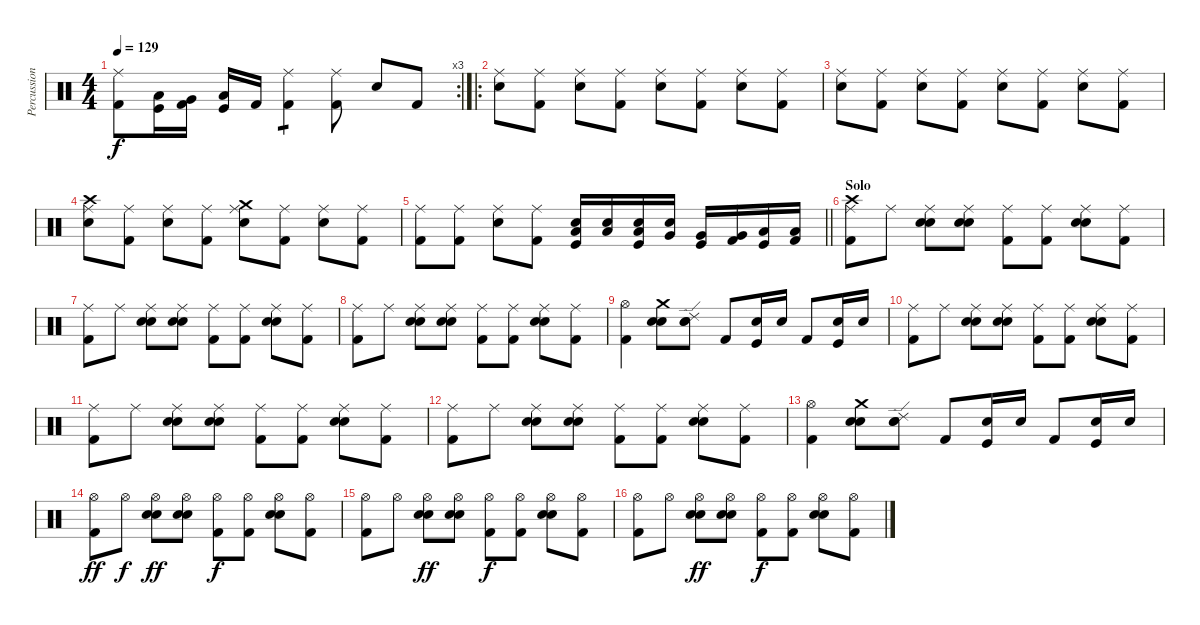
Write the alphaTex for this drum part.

\track ("Percussion" "Percussion") {instrument percussion}
\staff {score}
\articulation defaults
\rc 3
\ts (4 4)
\tempo 129
\clef neutral
\ks c
("Kick (hit) 2" "Ride (middle)").8{dy f} ("Kick (hit)" "Low Tom (hit)").16 ("Kick (hit) 2" "Very Low Tom (hit)").16 ("Kick (hit)" "Low Floor Tom (hit)").16 "Kick (hit) 2".16 ("Kick (hit) 2" "Ride (middle)").4{tp 1} ("Kick (hit) 2" "Ride (middle)").8 "Electric Snare (hit)".8 "Kick (hit) 2".8 |
\ro
("Electric Snare (hit)" "Ride (middle)").8 ("Kick (hit) 2" "Ride (middle)").8 ("Electric Snare (hit)" "Ride (middle)").8 ("Kick (hit) 2" "Ride (middle)").8 ("Electric Snare (hit)" "Ride (middle)").8 ("Kick (hit) 2" "Ride (middle)").8 ("Electric Snare (hit)" "Ride (middle)").8 ("Kick (hit) 2" "Ride (middle)").8 |
("Electric Snare (hit)" "Ride (middle)").8 ("Kick (hit) 2" "Ride (middle)").8 ("Electric Snare (hit)" "Ride (middle)").8 ("Kick (hit) 2" "Ride (middle)").8 ("Electric Snare (hit)" "Ride (middle)").8 ("Kick (hit) 2" "Ride (middle)").8 ("Electric Snare (hit)" "Ride (middle)").8 ("Kick (hit) 2" "Ride (middle)").8 |
("Electric Snare (hit)" "Ride (middle)" "Crash high (hit)").8 ("Kick (hit) 2" "Ride (middle)").8 ("Electric Snare (hit)" "Ride (middle)").8 ("Kick (hit) 2" "Ride (middle)").8 ("Electric Snare (hit)" "Ride (middle)" "Crash medium (hit)").8 ("Kick (hit) 2" "Ride (middle)").8 ("Electric Snare (hit)" "Ride (middle)").8 ("Kick (hit) 2" "Ride (middle)").8 |
\barLineRight lightlight
("Ride (middle)" "Kick (hit) 2").8 ("Ride (middle)" "Kick (hit) 2").8 ("Ride (middle)" "Electric Snare (hit)").8 ("Kick (hit) 2" "Ride (middle)").8 ("Kick (hit)" "Electric Snare (hit)" "Low Tom (hit)").16 ("Low Tom (hit)" "Electric Snare (hit)").16 ("Kick (hit)" "Electric Snare (hit)" "Low Tom (hit)").16 ("Electric Snare (hit)" "Very Low Tom (hit)").16 ("Kick (hit)" "Very Low Tom (hit)").16 ("Kick (hit) 2" "Very Low Tom (hit)").16 ("Kick (hit)" "Low Floor Tom (hit)").16 ("Kick (hit) 2" "Low Floor Tom (hit)").16 |
\section ("" "Solo")
("Kick (hit) 2" "Ride (middle)" "Crash high (hit)").8 "Ride (middle)".8 ("Hand Clap (hit)" "Electric Snare (hit)" "Ride (middle)").8 ("Electric Snare (hit)" "Hand Clap (hit)" "Ride (middle)").8 ("Kick (hit) 2" "Ride (middle)").8 ("Kick (hit) 2" "Ride (middle)").8 ("Electric Snare (hit)" "Ride (middle)" "Hand Clap (hit)").8 ("Kick (hit) 2" "Ride (middle)").8 |
("Kick (hit) 2" "Ride (middle)").8 "Ride (middle)".8 ("Hand Clap (hit)" "Electric Snare (hit)" "Ride (middle)").8 ("Electric Snare (hit)" "Hand Clap (hit)" "Ride (middle)").8 ("Kick (hit) 2" "Ride (middle)").8 ("Kick (hit) 2" "Ride (middle)").8 ("Electric Snare (hit)" "Ride (middle)" "Hand Clap (hit)").8 ("Kick (hit) 2" "Ride (middle)").8 |
("Kick (hit) 2" "Ride (middle)").8 "Ride (middle)".8 ("Hand Clap (hit)" "Electric Snare (hit)" "Ride (middle)").8 ("Electric Snare (hit)" "Hand Clap (hit)" "Ride (middle)").8 ("Kick (hit) 2" "Ride (middle)").8 ("Kick (hit) 2" "Ride (middle)").8 ("Electric Snare (hit)" "Ride (middle)" "Hand Clap (hit)").8 ("Kick (hit) 2" "Ride (middle)").8 |
("Kick (hit) 2" "Hi-Hat (open)").4 ("Hand Clap (hit)" "Electric Snare (hit)" "Crash medium (hit)").8 ("Electric Snare (hit)" "Hand Clap (hit)" "Ride (edge) 2").8 "Kick (hit) 2".8 ("Electric Snare (hit)" "Kick (hit)").16 "Electric Snare (hit)".16 "Kick (hit) 2".8 ("Electric Snare (hit)" "Kick (hit)").16 "Electric Snare (hit)".16 |
("Kick (hit) 2" "Ride (middle)").8 "Ride (middle)".8 ("Hand Clap (hit)" "Electric Snare (hit)" "Ride (middle)").8 ("Electric Snare (hit)" "Hand Clap (hit)" "Ride (middle)").8 ("Kick (hit) 2" "Ride (middle)").8 ("Kick (hit) 2" "Ride (middle)").8 ("Electric Snare (hit)" "Ride (middle)" "Hand Clap (hit)").8 ("Kick (hit) 2" "Ride (middle)").8 |
("Kick (hit) 2" "Ride (middle)").8 "Ride (middle)".8 ("Hand Clap (hit)" "Electric Snare (hit)" "Ride (middle)").8 ("Electric Snare (hit)" "Hand Clap (hit)" "Ride (middle)").8 ("Kick (hit) 2" "Ride (middle)").8 ("Kick (hit) 2" "Ride (middle)").8 ("Electric Snare (hit)" "Ride (middle)" "Hand Clap (hit)").8 ("Kick (hit) 2" "Ride (middle)").8 |
("Kick (hit) 2" "Ride (middle)").8 "Ride (middle)".8 ("Hand Clap (hit)" "Electric Snare (hit)" "Ride (middle)").8 ("Electric Snare (hit)" "Hand Clap (hit)" "Ride (middle)").8 ("Kick (hit) 2" "Ride (middle)").8 ("Kick (hit) 2" "Ride (middle)").8 ("Electric Snare (hit)" "Ride (middle)" "Hand Clap (hit)").8 ("Kick (hit) 2" "Ride (middle)").8 |
("Kick (hit) 2" "Hi-Hat (open)").4 ("Hand Clap (hit)" "Electric Snare (hit)" "Crash medium (hit)").8 ("Electric Snare (hit)" "Hand Clap (hit)" "Ride (edge) 2").8 "Kick (hit) 2".8 ("Electric Snare (hit)" "Kick (hit)").16 "Electric Snare (hit)".16 "Kick (hit) 2".8 ("Electric Snare (hit)" "Kick (hit)").16 "Electric Snare (hit)".16 |
("Kick (hit) 2" "Hi-Hat (open)").8{dy ff} "Hi-Hat (open)".8{dy f} ("Hand Clap (hit)" "Hi-Hat (open)" "Electric Snare (hit)").8{dy ff} ("Electric Snare (hit)" "Hi-Hat (open)" "Hand Clap (hit)").8 ("Kick (hit) 2" "Hi-Hat (open)").8{dy f} ("Kick (hit) 2" "Hi-Hat (open)").8 ("Electric Snare (hit)" "Hi-Hat (open)" "Hand Clap (hit)").8 ("Kick (hit) 2" "Hi-Hat (open)").8 |
("Kick (hit) 2" "Hi-Hat (open)").8 "Hi-Hat (open)".8 ("Hand Clap (hit)" "Hi-Hat (open)" "Electric Snare (hit)").8{dy ff} ("Electric Snare (hit)" "Hi-Hat (open)" "Hand Clap (hit)").8 ("Kick (hit) 2" "Hi-Hat (open)").8{dy f} ("Kick (hit) 2" "Hi-Hat (open)").8 ("Electric Snare (hit)" "Hi-Hat (open)" "Hand Clap (hit)").8 ("Kick (hit) 2" "Hi-Hat (open)").8 |
("Kick (hit) 2" "Hi-Hat (open)").8 "Hi-Hat (open)".8 ("Hand Clap (hit)" "Hi-Hat (open)" "Electric Snare (hit)").8{dy ff} ("Electric Snare (hit)" "Hi-Hat (open)" "Hand Clap (hit)").8 ("Kick (hit) 2" "Hi-Hat (open)").8{dy f} ("Kick (hit) 2" "Hi-Hat (open)").8 ("Electric Snare (hit)" "Hi-Hat (open)" "Hand Clap (hit)").8 ("Kick (hit) 2" "Hi-Hat (open)").8
